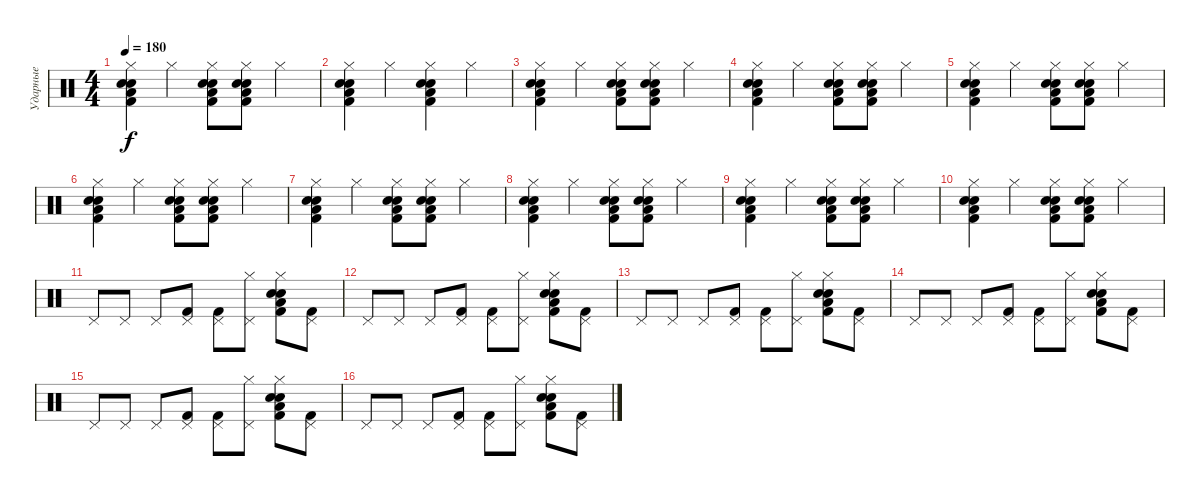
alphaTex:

\track ("Ударные" "Ударные") {instrument percussion}
\staff {score}
\articulation defaults
\ts (4 4)
\tempo 180
\clef neutral
\ks c
("Hi-Hat (closed)" "Kick (hit) 2" "Snare (hit) 2" "Electric Snare (hit)" "Low Floor Tom (hit)").4{dy f} "Hi-Hat (closed)".4 ("Hi-Hat (closed)" "Kick (hit) 2" "Snare (hit) 2" "Electric Snare (hit)" "Low Floor Tom (hit)").8 ("Hi-Hat (closed)" "Kick (hit) 2" "Snare (hit) 2" "Electric Snare (hit)" "Low Floor Tom (hit)").8 "Hi-Hat (closed)".4 |
("Hi-Hat (closed)" "Kick (hit) 2" "Snare (hit) 2" "Electric Snare (hit)" "Low Floor Tom (hit)").4 "Hi-Hat (closed)".4 ("Hi-Hat (closed)" "Kick (hit) 2" "Snare (hit) 2" "Electric Snare (hit)" "Low Floor Tom (hit)").4 "Hi-Hat (closed)".4 |
("Hi-Hat (closed)" "Kick (hit) 2" "Snare (hit) 2" "Electric Snare (hit)" "Low Floor Tom (hit)").4 "Hi-Hat (closed)".4 ("Hi-Hat (closed)" "Kick (hit) 2" "Snare (hit) 2" "Electric Snare (hit)" "Low Floor Tom (hit)").8 ("Hi-Hat (closed)" "Kick (hit) 2" "Snare (hit) 2" "Electric Snare (hit)" "Low Floor Tom (hit)").8 "Hi-Hat (closed)".4 |
("Hi-Hat (closed)" "Kick (hit) 2" "Snare (hit) 2" "Electric Snare (hit)" "Low Floor Tom (hit)").4 "Hi-Hat (closed)".4 ("Hi-Hat (closed)" "Kick (hit) 2" "Snare (hit) 2" "Electric Snare (hit)" "Low Floor Tom (hit)").8 ("Hi-Hat (closed)" "Kick (hit) 2" "Snare (hit) 2" "Electric Snare (hit)" "Low Floor Tom (hit)").8 "Hi-Hat (closed)".4 |
("Hi-Hat (closed)" "Kick (hit) 2" "Snare (hit) 2" "Electric Snare (hit)" "Low Floor Tom (hit)").4 "Hi-Hat (closed)".4 ("Hi-Hat (closed)" "Kick (hit) 2" "Snare (hit) 2" "Electric Snare (hit)" "Low Floor Tom (hit)").8 ("Hi-Hat (closed)" "Kick (hit) 2" "Snare (hit) 2" "Electric Snare (hit)" "Low Floor Tom (hit)").8 "Hi-Hat (closed)".4 |
("Hi-Hat (closed)" "Kick (hit) 2" "Snare (hit) 2" "Electric Snare (hit)" "Low Floor Tom (hit)").4 "Hi-Hat (closed)".4 ("Hi-Hat (closed)" "Kick (hit) 2" "Snare (hit) 2" "Electric Snare (hit)" "Low Floor Tom (hit)").8 ("Hi-Hat (closed)" "Kick (hit) 2" "Snare (hit) 2" "Electric Snare (hit)" "Low Floor Tom (hit)").8 "Hi-Hat (closed)".4 |
("Hi-Hat (closed)" "Kick (hit) 2" "Snare (hit) 2" "Electric Snare (hit)" "Low Floor Tom (hit)").4 "Hi-Hat (closed)".4 ("Hi-Hat (closed)" "Kick (hit) 2" "Snare (hit) 2" "Electric Snare (hit)" "Low Floor Tom (hit)").8 ("Hi-Hat (closed)" "Kick (hit) 2" "Snare (hit) 2" "Electric Snare (hit)" "Low Floor Tom (hit)").8 "Hi-Hat (closed)".4 |
("Hi-Hat (closed)" "Kick (hit) 2" "Snare (hit) 2" "Electric Snare (hit)" "Low Floor Tom (hit)").4 "Hi-Hat (closed)".4 ("Hi-Hat (closed)" "Kick (hit) 2" "Snare (hit) 2" "Electric Snare (hit)" "Low Floor Tom (hit)").8 ("Hi-Hat (closed)" "Kick (hit) 2" "Snare (hit) 2" "Electric Snare (hit)" "Low Floor Tom (hit)").8 "Hi-Hat (closed)".4 |
("Hi-Hat (closed)" "Kick (hit) 2" "Snare (hit) 2" "Electric Snare (hit)" "Low Floor Tom (hit)").4 "Hi-Hat (closed)".4 ("Hi-Hat (closed)" "Kick (hit) 2" "Snare (hit) 2" "Electric Snare (hit)" "Low Floor Tom (hit)").8 ("Hi-Hat (closed)" "Kick (hit) 2" "Snare (hit) 2" "Electric Snare (hit)" "Low Floor Tom (hit)").8 "Hi-Hat (closed)".4 |
("Hi-Hat (closed)" "Kick (hit) 2" "Snare (hit) 2" "Electric Snare (hit)" "Low Floor Tom (hit)").4 "Hi-Hat (closed)".4 ("Hi-Hat (closed)" "Kick (hit) 2" "Snare (hit) 2" "Electric Snare (hit)" "Low Floor Tom (hit)").8 ("Hi-Hat (closed)" "Kick (hit) 2" "Snare (hit) 2" "Electric Snare (hit)" "Low Floor Tom (hit)").8 "Hi-Hat (closed)".4 |
"Pedal Hi-Hat (hit)".8 "Pedal Hi-Hat (hit)".8 "Pedal Hi-Hat (hit)".8 ("Kick (hit) 2" "Pedal Hi-Hat (hit)").8 ("Kick (hit) 2" "Pedal Hi-Hat (hit)").8 ("Hi-Hat (closed)" "Pedal Hi-Hat (hit)").8 ("Hi-Hat (closed)" "Kick (hit) 2" "Snare (hit) 2" "Electric Snare (hit)" "Low Floor Tom (hit)").8 ("Kick (hit) 2" "Pedal Hi-Hat (hit)").8 |
"Pedal Hi-Hat (hit)".8 "Pedal Hi-Hat (hit)".8 "Pedal Hi-Hat (hit)".8 ("Kick (hit) 2" "Pedal Hi-Hat (hit)").8 ("Kick (hit) 2" "Pedal Hi-Hat (hit)").8 ("Hi-Hat (closed)" "Pedal Hi-Hat (hit)").8 ("Hi-Hat (closed)" "Kick (hit) 2" "Snare (hit) 2" "Electric Snare (hit)" "Low Floor Tom (hit)").8 ("Kick (hit) 2" "Pedal Hi-Hat (hit)").8 |
"Pedal Hi-Hat (hit)".8 "Pedal Hi-Hat (hit)".8 "Pedal Hi-Hat (hit)".8 ("Kick (hit) 2" "Pedal Hi-Hat (hit)").8 ("Kick (hit) 2" "Pedal Hi-Hat (hit)").8 ("Hi-Hat (closed)" "Pedal Hi-Hat (hit)").8 ("Hi-Hat (closed)" "Kick (hit) 2" "Snare (hit) 2" "Electric Snare (hit)" "Low Floor Tom (hit)").8 ("Kick (hit) 2" "Pedal Hi-Hat (hit)").8 |
"Pedal Hi-Hat (hit)".8 "Pedal Hi-Hat (hit)".8 "Pedal Hi-Hat (hit)".8 ("Kick (hit) 2" "Pedal Hi-Hat (hit)").8 ("Kick (hit) 2" "Pedal Hi-Hat (hit)").8 ("Hi-Hat (closed)" "Pedal Hi-Hat (hit)").8 ("Hi-Hat (closed)" "Kick (hit) 2" "Snare (hit) 2" "Electric Snare (hit)" "Low Floor Tom (hit)").8 ("Kick (hit) 2" "Pedal Hi-Hat (hit)").8 |
"Pedal Hi-Hat (hit)".8 "Pedal Hi-Hat (hit)".8 "Pedal Hi-Hat (hit)".8 ("Kick (hit) 2" "Pedal Hi-Hat (hit)").8 ("Kick (hit) 2" "Pedal Hi-Hat (hit)").8 ("Hi-Hat (closed)" "Pedal Hi-Hat (hit)").8 ("Hi-Hat (closed)" "Kick (hit) 2" "Snare (hit) 2" "Electric Snare (hit)" "Low Floor Tom (hit)").8 ("Kick (hit) 2" "Pedal Hi-Hat (hit)").8 |
"Pedal Hi-Hat (hit)".8 "Pedal Hi-Hat (hit)".8 "Pedal Hi-Hat (hit)".8 ("Kick (hit) 2" "Pedal Hi-Hat (hit)").8 ("Kick (hit) 2" "Pedal Hi-Hat (hit)").8 ("Hi-Hat (closed)" "Pedal Hi-Hat (hit)").8 ("Hi-Hat (closed)" "Kick (hit) 2" "Snare (hit) 2" "Electric Snare (hit)" "Low Floor Tom (hit)").8 ("Kick (hit) 2" "Pedal Hi-Hat (hit)").8
